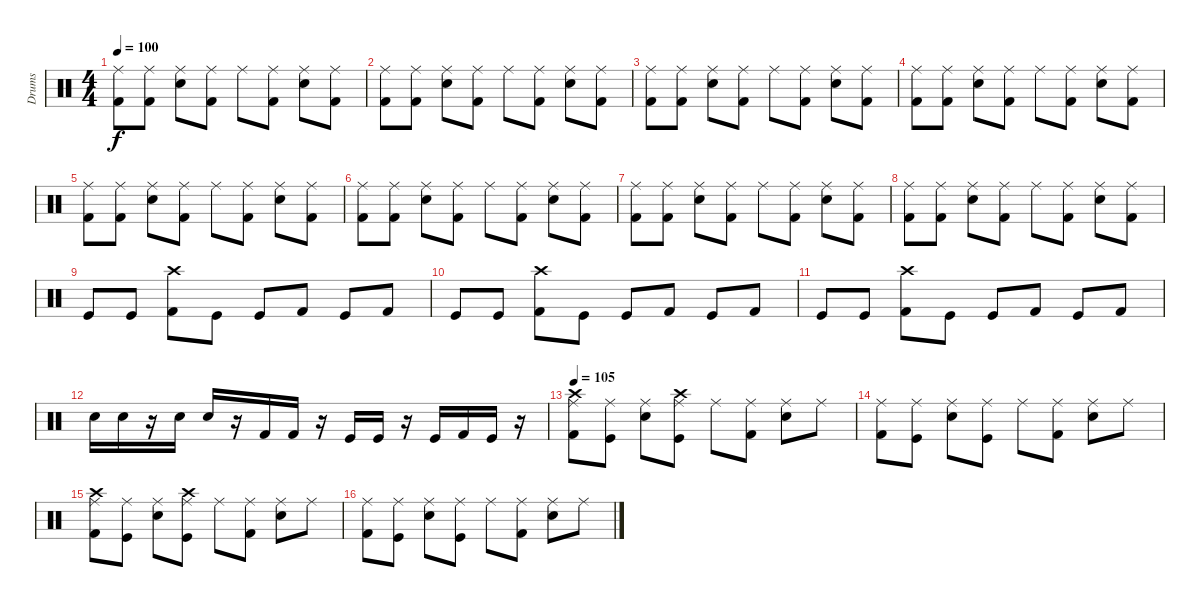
\track ("Drums" "Drums") {instrument percussion}
\staff {score}
\articulation defaults
\ts (4 4)
\tempo 100
\clef neutral
\ks c
("Ride (middle)" "Kick (hit) 2").8{dy f} ("Ride (middle)" "Kick (hit) 2").8 ("Ride (middle)" "Snare (hit) 2").8 ("Ride (middle)" "Kick (hit) 2").8 "Ride (middle)".8 ("Ride (middle)" "Kick (hit) 2").8 ("Ride (middle)" "Snare (hit) 2").8 ("Ride (middle)" "Kick (hit) 2").8 |
("Ride (middle)" "Kick (hit) 2").8 ("Ride (middle)" "Kick (hit) 2").8 ("Ride (middle)" "Snare (hit) 2").8 ("Ride (middle)" "Kick (hit) 2").8 "Ride (middle)".8 ("Ride (middle)" "Kick (hit) 2").8 ("Ride (middle)" "Snare (hit) 2").8 ("Ride (middle)" "Kick (hit) 2").8 |
("Ride (middle)" "Kick (hit) 2").8 ("Ride (middle)" "Kick (hit) 2").8 ("Ride (middle)" "Snare (hit) 2").8 ("Ride (middle)" "Kick (hit) 2").8 "Ride (middle)".8 ("Ride (middle)" "Kick (hit) 2").8 ("Ride (middle)" "Snare (hit) 2").8 ("Ride (middle)" "Kick (hit) 2").8 |
("Ride (middle)" "Kick (hit) 2").8 ("Ride (middle)" "Kick (hit) 2").8 ("Ride (middle)" "Snare (hit) 2").8 ("Ride (middle)" "Kick (hit) 2").8 "Ride (middle)".8 ("Ride (middle)" "Kick (hit) 2").8 ("Ride (middle)" "Snare (hit) 2").8 ("Ride (middle)" "Kick (hit) 2").8 |
("Ride (middle)" "Kick (hit) 2").8 ("Ride (middle)" "Kick (hit) 2").8 ("Ride (middle)" "Snare (hit) 2").8 ("Ride (middle)" "Kick (hit) 2").8 "Ride (middle)".8 ("Ride (middle)" "Kick (hit) 2").8 ("Ride (middle)" "Snare (hit) 2").8 ("Ride (middle)" "Kick (hit) 2").8 |
("Ride (middle)" "Kick (hit) 2").8 ("Ride (middle)" "Kick (hit) 2").8 ("Ride (middle)" "Snare (hit) 2").8 ("Ride (middle)" "Kick (hit) 2").8 "Ride (middle)".8 ("Ride (middle)" "Kick (hit) 2").8 ("Ride (middle)" "Snare (hit) 2").8 ("Ride (middle)" "Kick (hit) 2").8 |
("Ride (middle)" "Kick (hit) 2").8 ("Ride (middle)" "Kick (hit) 2").8 ("Ride (middle)" "Snare (hit) 2").8 ("Ride (middle)" "Kick (hit) 2").8 "Ride (middle)".8 ("Ride (middle)" "Kick (hit) 2").8 ("Ride (middle)" "Snare (hit) 2").8 ("Ride (middle)" "Kick (hit) 2").8 |
("Ride (middle)" "Kick (hit) 2").8 ("Ride (middle)" "Kick (hit) 2").8 ("Ride (middle)" "Snare (hit) 2").8 ("Ride (middle)" "Kick (hit) 2").8 "Ride (middle)".8 ("Ride (middle)" "Kick (hit) 2").8 ("Ride (middle)" "Snare (hit) 2").8 ("Ride (middle)" "Kick (hit) 2").8 |
"Kick (hit)".8 "Kick (hit)".8 ("Crash high (hit)" "Kick (hit) 2").8 "Kick (hit)".8 "Kick (hit)".8 "Kick (hit) 2".8 "Kick (hit)".8 "Kick (hit) 2".8 |
"Kick (hit)".8 "Kick (hit)".8 ("Crash high (hit)" "Kick (hit) 2").8 "Kick (hit)".8 "Kick (hit)".8 "Kick (hit) 2".8 "Kick (hit)".8 "Kick (hit) 2".8 |
"Kick (hit)".8 "Kick (hit)".8 ("Crash high (hit)" "Kick (hit) 2").8 "Kick (hit)".8 "Kick (hit)".8 "Kick (hit) 2".8 "Kick (hit)".8 "Kick (hit) 2".8 |
"Electric Snare (hit)".16 "Electric Snare (hit)".16 r.16 "Snare (hit) 2".16 "Snare (hit) 2".16 r.16 "Kick (hit) 2".16 "Kick (hit) 2".16 r.16 "Kick (hit)".16 "Kick (hit)".16 r.16 "Kick (hit)".16 "Kick (hit) 2".16 "Kick (hit)".16 r.16 |
\tempo 105
("Ride (middle)" "Crash high (hit)" "Kick (hit) 2").8 ("Ride (middle)" "Kick (hit)").8 ("Ride (middle)" "Snare (hit) 2").8 ("Ride (middle)" "Crash high (hit)" "Kick (hit)").8 "Ride (middle)".8 ("Ride (middle)" "Kick (hit) 2").8 ("Ride (middle)" "Snare (hit) 2").8 "Ride (middle)".8 |
("Ride (middle)" "Kick (hit) 2").8 ("Ride (middle)" "Kick (hit)").8 ("Ride (middle)" "Snare (hit) 2").8 ("Ride (middle)" "Kick (hit)").8 "Ride (middle)".8 ("Ride (middle)" "Kick (hit) 2").8 ("Ride (middle)" "Snare (hit) 2").8 "Ride (middle)".8 |
("Ride (middle)" "Crash high (hit)" "Kick (hit) 2").8 ("Ride (middle)" "Kick (hit)").8 ("Ride (middle)" "Snare (hit) 2").8 ("Ride (middle)" "Crash high (hit)" "Kick (hit)").8 "Ride (middle)".8 ("Ride (middle)" "Kick (hit) 2").8 ("Ride (middle)" "Snare (hit) 2").8 "Ride (middle)".8 |
("Ride (middle)" "Kick (hit) 2").8 ("Ride (middle)" "Kick (hit)").8 ("Ride (middle)" "Snare (hit) 2").8 ("Ride (middle)" "Kick (hit)").8 "Ride (middle)".8 ("Ride (middle)" "Kick (hit) 2").8 ("Ride (middle)" "Snare (hit) 2").8 "Ride (middle)".8
